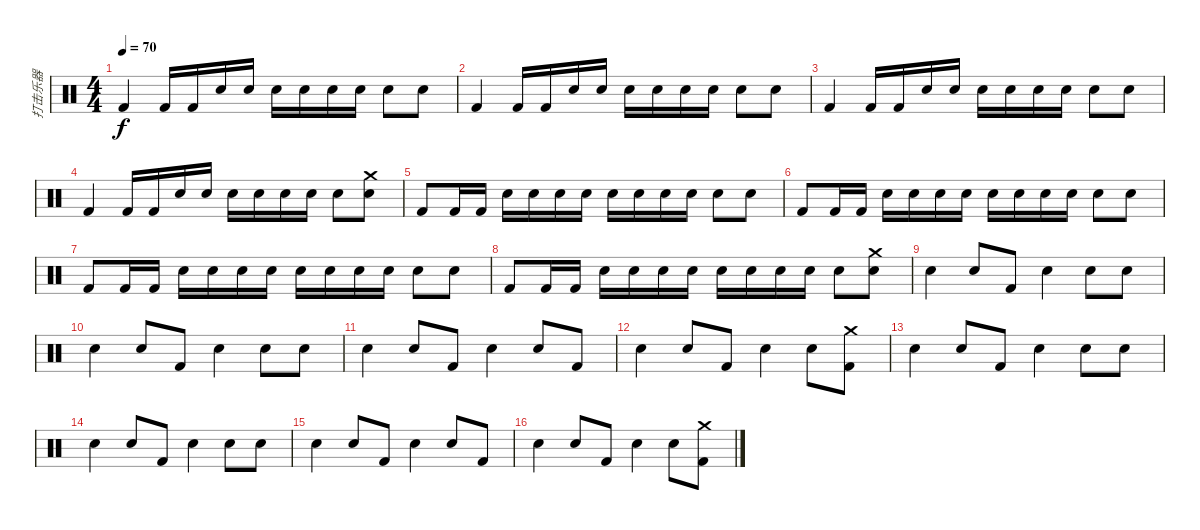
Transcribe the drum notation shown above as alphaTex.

\track ("打击乐器" "打击乐器") {instrument percussion}
\staff {score}
\articulation defaults
\ts (4 4)
\tempo 70
\clef neutral
\ks c "Kick (hit) 2".4{dy f} "Kick (hit) 2".16 "Kick (hit) 2".16 "Snare (hit) 2".16 "Snare (hit) 2".16 "Snare (hit) 2".16 "Electric Snare (hit)".16 "Electric Snare (hit)".16 "Electric Snare (hit)".16 "Snare (hit) 2".8 "Snare (hit) 2".8
|
"Kick (hit) 2".4 "Kick (hit) 2".16 "Kick (hit) 2".16 "Snare (hit) 2".16 "Snare (hit) 2".16 "Snare (hit) 2".16 "Electric Snare (hit)".16 "Electric Snare (hit)".16 "Electric Snare (hit)".16 "Snare (hit) 2".8 "Snare (hit) 2".8 |
"Kick (hit) 2".4 "Kick (hit) 2".16 "Kick (hit) 2".16 "Snare (hit) 2".16 "Snare (hit) 2".16 "Snare (hit) 2".16 "Electric Snare (hit)".16 "Electric Snare (hit)".16 "Electric Snare (hit)".16 "Snare (hit) 2".8 "Snare (hit) 2".8 |
"Kick (hit) 2".4 "Kick (hit) 2".16 "Kick (hit) 2".16 "Snare (hit) 2".16 "Snare (hit) 2".16 "Snare (hit) 2".16 "Electric Snare (hit)".16 "Electric Snare (hit)".16 "Electric Snare (hit)".16 "Snare (hit) 2".8 ("Snare (hit) 2" "Crash medium (hit)").8 |
"Kick (hit) 2".8 "Kick (hit) 2".16 "Kick (hit) 2".16 "Snare (hit) 2".16 "Snare (hit) 2".16 "Snare (hit) 2".16 "Snare (hit) 2".16 "Electric Snare (hit)".16 "Electric Snare (hit)".16 "Electric Snare (hit)".16 "Electric Snare (hit)".16 "Snare (hit) 2".8 "Snare (hit) 2".8 |
"Kick (hit) 2".8 "Kick (hit) 2".16 "Kick (hit) 2".16 "Snare (hit) 2".16 "Snare (hit) 2".16 "Snare (hit) 2".16 "Snare (hit) 2".16 "Electric Snare (hit)".16 "Electric Snare (hit)".16 "Electric Snare (hit)".16 "Electric Snare (hit)".16 "Snare (hit) 2".8 "Snare (hit) 2".8 |
"Kick (hit) 2".8 "Kick (hit) 2".16 "Kick (hit) 2".16 "Snare (hit) 2".16 "Snare (hit) 2".16 "Snare (hit) 2".16 "Snare (hit) 2".16 "Electric Snare (hit)".16 "Electric Snare (hit)".16 "Electric Snare (hit)".16 "Electric Snare (hit)".16 "Snare (hit) 2".8 "Snare (hit) 2".8 |
"Kick (hit) 2".8 "Kick (hit) 2".16 "Kick (hit) 2".16 "Snare (hit) 2".16 "Snare (hit) 2".16 "Snare (hit) 2".16 "Snare (hit) 2".16 "Electric Snare (hit)".16 "Electric Snare (hit)".16 "Electric Snare (hit)".16 "Electric Snare (hit)".16 "Snare (hit) 2".8 ("Snare (hit) 2" "Crash medium (hit)").8 |
"Snare (hit) 2".4 "Electric Snare (hit)".8 "Kick (hit) 2".8 "Snare (hit) 2".4 "Electric Snare (hit)".8 "Snare (hit) 2".8 |
"Snare (hit) 2".4 "Electric Snare (hit)".8 "Kick (hit) 2".8 "Snare (hit) 2".4 "Electric Snare (hit)".8 "Snare (hit) 2".8 |
"Snare (hit) 2".4 "Electric Snare (hit)".8 "Kick (hit) 2".8 "Snare (hit) 2".4 "Electric Snare (hit)".8 "Kick (hit) 2".8 |
"Snare (hit) 2".4 "Electric Snare (hit)".8 "Kick (hit) 2".8 "Snare (hit) 2".4 "Electric Snare (hit)".8 ("Crash medium (hit)" "Kick (hit) 2").8 |
"Snare (hit) 2".4 "Electric Snare (hit)".8 "Kick (hit) 2".8 "Snare (hit) 2".4 "Electric Snare (hit)".8 "Snare (hit) 2".8 |
"Snare (hit) 2".4 "Electric Snare (hit)".8 "Kick (hit) 2".8 "Snare (hit) 2".4 "Electric Snare (hit)".8 "Snare (hit) 2".8 |
"Snare (hit) 2".4 "Electric Snare (hit)".8 "Kick (hit) 2".8 "Snare (hit) 2".4 "Electric Snare (hit)".8 "Kick (hit) 2".8 |
"Snare (hit) 2".4 "Electric Snare (hit)".8 "Kick (hit) 2".8 "Snare (hit) 2".4 "Electric Snare (hit)".8 ("Crash medium (hit)" "Kick (hit) 2").8
